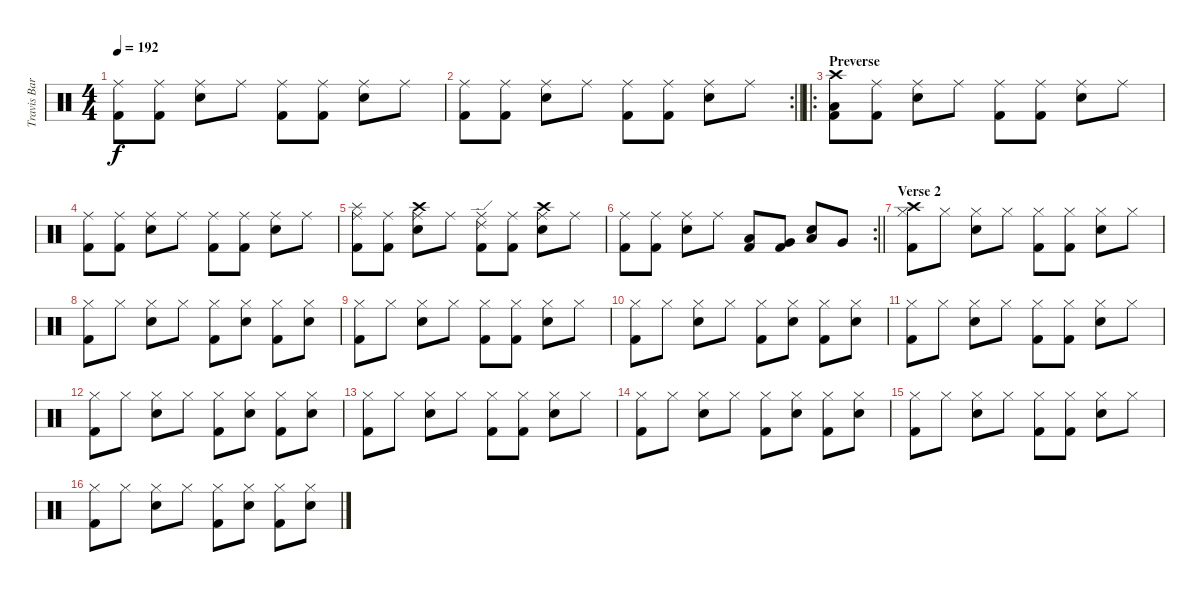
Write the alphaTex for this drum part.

\track ("Travis Barker" "Travis Bar") {instrument percussion}
\staff {score}
\articulation defaults
\ts (4 4)
\tempo 192
\clef neutral
\ks c
("Kick (hit) 2" "Ride (middle)").8{dy f} ("Kick (hit) 2" "Ride (middle)").8 ("Electric Snare (hit)" "Ride (middle)").8 "Ride (middle)".8 ("Kick (hit) 2" "Ride (middle)").8 ("Kick (hit) 2" "Ride (middle)").8 ("Electric Snare (hit)" "Ride (middle)").8 "Ride (middle)".8 |
\rc 2
\barLineRight lightlight
("Kick (hit) 2" "Ride (middle)").8 ("Kick (hit) 2" "Ride (middle)").8 ("Electric Snare (hit)" "Ride (middle)").8 "Ride (middle)".8 ("Kick (hit) 2" "Ride (middle)").8 ("Kick (hit) 2" "Ride (middle)").8 ("Electric Snare (hit)" "Ride (middle)").8 "Ride (middle)".8 |
\ro
\section ("" "Preverse")
("Low Floor Tom (hit)" "Kick (hit) 2" "Crash high (hit)").8 ("Kick (hit) 2" "Ride (middle)").8 ("Snare (hit) 2" "Ride (middle)").8 "Ride (middle)".8 ("Kick (hit) 2" "Ride (middle)").8 ("Kick (hit) 2" "Ride (middle)").8 ("Snare (hit) 2" "Ride (middle)").8 "Ride (middle)".8 |
("Kick (hit) 2" "Ride (middle)").8 ("Kick (hit) 2" "Ride (middle)").8 ("Electric Snare (hit)" "Ride (middle)").8 "Ride (middle)".8 ("Kick (hit) 2" "Ride (middle)").8 ("Kick (hit) 2" "Ride (middle)").8 ("Electric Snare (hit)" "Ride (middle)").8 "Ride (middle)".8 |
("Kick (hit) 2" "Ride (middle)" "Splash (hit)").8 ("Kick (hit) 2" "Ride (middle)").8 ("Electric Snare (hit)" "Ride (middle)" "Crash high (hit)").8 "Ride (middle)".8 ("Kick (hit) 2" "Ride (middle)" "Ride (edge) 2").8 ("Kick (hit) 2" "Ride (middle)").8 ("Electric Snare (hit)" "Ride (middle)" "Crash high (hit)").8 "Ride (middle)".8 |
\rc 2
\barLineRight lightlight
("Kick (hit) 2" "Ride (middle)").8 ("Kick (hit) 2" "Ride (middle)").8 ("Snare (hit) 2" "Ride (middle)").8 "Ride (middle)".8 ("Kick (hit) 2" "Low Tom (hit)").8 ("Kick (hit) 2" "Very Low Tom (hit)").8 ("Snare (hit) 2" "Low Tom (hit)").8 "Very Low Tom (hit)".8 |
\section ("" "Verse 2")
("Crash high (hit)" "Hi-Hat (closed)" "Kick (hit) 2").8 "Hi-Hat (closed)".8 ("Hi-Hat (closed)" "Snare (hit) 2").8 "Hi-Hat (closed)".8 ("Hi-Hat (closed)" "Kick (hit) 2").8 ("Hi-Hat (closed)" "Kick (hit) 2").8 ("Hi-Hat (closed)" "Snare (hit) 2").8 "Hi-Hat (closed)".8 |
("Hi-Hat (closed)" "Kick (hit) 2").8 "Hi-Hat (closed)".8 ("Hi-Hat (closed)" "Snare (hit) 2").8 "Hi-Hat (closed)".8 ("Hi-Hat (closed)" "Kick (hit) 2").8 ("Hi-Hat (closed)" "Snare (hit) 2").8 ("Hi-Hat (closed)" "Kick (hit) 2").8 ("Hi-Hat (closed)" "Snare (hit) 2").8 |
("Hi-Hat (closed)" "Kick (hit) 2").8 "Hi-Hat (closed)".8 ("Hi-Hat (closed)" "Snare (hit) 2").8 "Hi-Hat (closed)".8 ("Hi-Hat (closed)" "Kick (hit) 2").8 ("Hi-Hat (closed)" "Kick (hit) 2").8 ("Hi-Hat (closed)" "Snare (hit) 2").8 "Hi-Hat (closed)".8 |
("Hi-Hat (closed)" "Kick (hit) 2").8 "Hi-Hat (closed)".8 ("Hi-Hat (closed)" "Snare (hit) 2").8 "Hi-Hat (closed)".8 ("Hi-Hat (closed)" "Kick (hit) 2").8 ("Hi-Hat (closed)" "Snare (hit) 2").8 ("Hi-Hat (closed)" "Kick (hit) 2").8 ("Hi-Hat (closed)" "Snare (hit) 2").8 |
("Hi-Hat (closed)" "Kick (hit) 2").8 "Hi-Hat (closed)".8 ("Hi-Hat (closed)" "Snare (hit) 2").8 "Hi-Hat (closed)".8 ("Hi-Hat (closed)" "Kick (hit) 2").8 ("Hi-Hat (closed)" "Kick (hit) 2").8 ("Hi-Hat (closed)" "Snare (hit) 2").8 "Hi-Hat (closed)".8 |
("Hi-Hat (closed)" "Kick (hit) 2").8 "Hi-Hat (closed)".8 ("Hi-Hat (closed)" "Snare (hit) 2").8 "Hi-Hat (closed)".8 ("Hi-Hat (closed)" "Kick (hit) 2").8 ("Hi-Hat (closed)" "Snare (hit) 2").8 ("Hi-Hat (closed)" "Kick (hit) 2").8 ("Hi-Hat (closed)" "Snare (hit) 2").8 |
("Hi-Hat (closed)" "Kick (hit) 2").8 "Hi-Hat (closed)".8 ("Hi-Hat (closed)" "Snare (hit) 2").8 "Hi-Hat (closed)".8 ("Hi-Hat (closed)" "Kick (hit) 2").8 ("Hi-Hat (closed)" "Kick (hit) 2").8 ("Hi-Hat (closed)" "Snare (hit) 2").8 "Hi-Hat (closed)".8 |
("Hi-Hat (closed)" "Kick (hit) 2").8 "Hi-Hat (closed)".8 ("Hi-Hat (closed)" "Snare (hit) 2").8 "Hi-Hat (closed)".8 ("Hi-Hat (closed)" "Kick (hit) 2").8 ("Hi-Hat (closed)" "Snare (hit) 2").8 ("Hi-Hat (closed)" "Kick (hit) 2").8 ("Hi-Hat (closed)" "Snare (hit) 2").8 |
("Hi-Hat (closed)" "Kick (hit) 2").8 "Hi-Hat (closed)".8 ("Hi-Hat (closed)" "Snare (hit) 2").8 "Hi-Hat (closed)".8 ("Hi-Hat (closed)" "Kick (hit) 2").8 ("Hi-Hat (closed)" "Kick (hit) 2").8 ("Hi-Hat (closed)" "Snare (hit) 2").8 "Hi-Hat (closed)".8 |
("Hi-Hat (closed)" "Kick (hit) 2").8 "Hi-Hat (closed)".8 ("Hi-Hat (closed)" "Snare (hit) 2").8 "Hi-Hat (closed)".8 ("Hi-Hat (closed)" "Kick (hit) 2").8 ("Hi-Hat (closed)" "Snare (hit) 2").8 ("Hi-Hat (closed)" "Kick (hit) 2").8 ("Hi-Hat (closed)" "Snare (hit) 2").8
